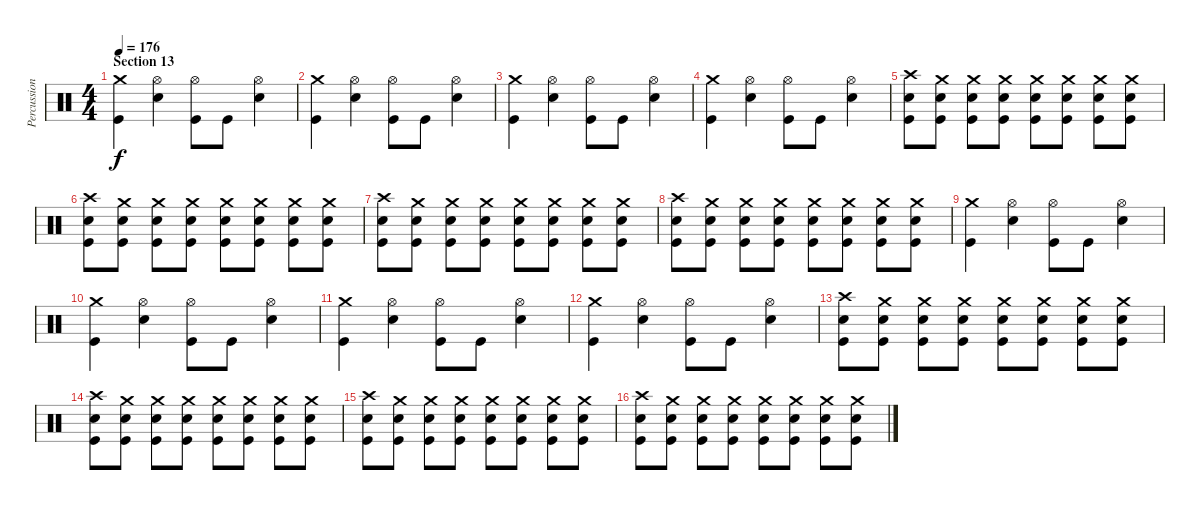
\track ("Percussions" "Percussion") {instrument percussion}
\staff {score}
\articulation defaults
\ts (4 4)
\section ("" "Section 13")
\tempo 176
\clef neutral
\ks c
("Crash medium (hit)" "Kick (hit)").4{dy f} ("Hi-Hat (open)" "Electric Snare (hit)").4 ("Hi-Hat (open)" "Kick (hit)").8 "Kick (hit)".8 ("Hi-Hat (open)" "Electric Snare (hit)").4 |
("Crash medium (hit)" "Kick (hit)").4 ("Hi-Hat (open)" "Electric Snare (hit)").4 ("Hi-Hat (open)" "Kick (hit)").8 "Kick (hit)".8 ("Hi-Hat (open)" "Electric Snare (hit)").4 |
("Crash medium (hit)" "Kick (hit)").4 ("Hi-Hat (open)" "Electric Snare (hit)").4 ("Hi-Hat (open)" "Kick (hit)").8 "Kick (hit)".8 ("Hi-Hat (open)" "Electric Snare (hit)").4 |
("Crash medium (hit)" "Kick (hit)").4 ("Hi-Hat (open)" "Electric Snare (hit)").4 ("Hi-Hat (open)" "Kick (hit)").8 "Kick (hit)".8 ("Hi-Hat (open)" "Electric Snare (hit)").4 |
("Crash high (hit)" "Electric Snare (hit)" "Kick (hit)").8 ("Crash medium (hit)" "Electric Snare (hit)" "Kick (hit)").8 ("Crash medium (hit)" "Electric Snare (hit)" "Kick (hit)").8 ("Crash medium (hit)" "Electric Snare (hit)" "Kick (hit)").8 ("Crash medium (hit)" "Electric Snare (hit)" "Kick (hit)").8 ("Crash medium (hit)" "Electric Snare (hit)" "Kick (hit)").8 ("Crash medium (hit)" "Electric Snare (hit)" "Kick (hit)").8 ("Crash medium (hit)" "Electric Snare (hit)" "Kick (hit)").8 |
("Crash high (hit)" "Electric Snare (hit)" "Kick (hit)").8 ("Crash medium (hit)" "Electric Snare (hit)" "Kick (hit)").8 ("Crash medium (hit)" "Electric Snare (hit)" "Kick (hit)").8 ("Crash medium (hit)" "Electric Snare (hit)" "Kick (hit)").8 ("Crash medium (hit)" "Electric Snare (hit)" "Kick (hit)").8 ("Crash medium (hit)" "Electric Snare (hit)" "Kick (hit)").8 ("Crash medium (hit)" "Electric Snare (hit)" "Kick (hit)").8 ("Crash medium (hit)" "Electric Snare (hit)" "Kick (hit)").8 |
("Crash high (hit)" "Electric Snare (hit)" "Kick (hit)").8 ("Crash medium (hit)" "Electric Snare (hit)" "Kick (hit)").8 ("Crash medium (hit)" "Electric Snare (hit)" "Kick (hit)").8 ("Crash medium (hit)" "Electric Snare (hit)" "Kick (hit)").8 ("Crash medium (hit)" "Electric Snare (hit)" "Kick (hit)").8 ("Crash medium (hit)" "Electric Snare (hit)" "Kick (hit)").8 ("Crash medium (hit)" "Electric Snare (hit)" "Kick (hit)").8 ("Crash medium (hit)" "Electric Snare (hit)" "Kick (hit)").8 |
("Crash high (hit)" "Electric Snare (hit)" "Kick (hit)").8 ("Crash medium (hit)" "Electric Snare (hit)" "Kick (hit)").8 ("Crash medium (hit)" "Electric Snare (hit)" "Kick (hit)").8 ("Crash medium (hit)" "Electric Snare (hit)" "Kick (hit)").8 ("Crash medium (hit)" "Electric Snare (hit)" "Kick (hit)").8 ("Crash medium (hit)" "Electric Snare (hit)" "Kick (hit)").8 ("Crash medium (hit)" "Electric Snare (hit)" "Kick (hit)").8 ("Crash medium (hit)" "Electric Snare (hit)" "Kick (hit)").8 |
("Crash medium (hit)" "Kick (hit)").4 ("Hi-Hat (open)" "Electric Snare (hit)").4 ("Hi-Hat (open)" "Kick (hit)").8 "Kick (hit)".8 ("Hi-Hat (open)" "Electric Snare (hit)").4 |
("Crash medium (hit)" "Kick (hit)").4 ("Hi-Hat (open)" "Electric Snare (hit)").4 ("Hi-Hat (open)" "Kick (hit)").8 "Kick (hit)".8 ("Hi-Hat (open)" "Electric Snare (hit)").4 |
("Crash medium (hit)" "Kick (hit)").4 ("Hi-Hat (open)" "Electric Snare (hit)").4 ("Hi-Hat (open)" "Kick (hit)").8 "Kick (hit)".8 ("Hi-Hat (open)" "Electric Snare (hit)").4 |
("Crash medium (hit)" "Kick (hit)").4 ("Hi-Hat (open)" "Electric Snare (hit)").4 ("Hi-Hat (open)" "Kick (hit)").8 "Kick (hit)".8 ("Hi-Hat (open)" "Electric Snare (hit)").4 |
("Crash high (hit)" "Electric Snare (hit)" "Kick (hit)").8 ("Crash medium (hit)" "Electric Snare (hit)" "Kick (hit)").8 ("Crash medium (hit)" "Electric Snare (hit)" "Kick (hit)").8 ("Crash medium (hit)" "Electric Snare (hit)" "Kick (hit)").8 ("Crash medium (hit)" "Electric Snare (hit)" "Kick (hit)").8 ("Crash medium (hit)" "Electric Snare (hit)" "Kick (hit)").8 ("Crash medium (hit)" "Electric Snare (hit)" "Kick (hit)").8 ("Crash medium (hit)" "Electric Snare (hit)" "Kick (hit)").8 |
("Crash high (hit)" "Electric Snare (hit)" "Kick (hit)").8 ("Crash medium (hit)" "Electric Snare (hit)" "Kick (hit)").8 ("Crash medium (hit)" "Electric Snare (hit)" "Kick (hit)").8 ("Crash medium (hit)" "Electric Snare (hit)" "Kick (hit)").8 ("Crash medium (hit)" "Electric Snare (hit)" "Kick (hit)").8 ("Crash medium (hit)" "Electric Snare (hit)" "Kick (hit)").8 ("Crash medium (hit)" "Electric Snare (hit)" "Kick (hit)").8 ("Crash medium (hit)" "Electric Snare (hit)" "Kick (hit)").8 |
("Crash high (hit)" "Electric Snare (hit)" "Kick (hit)").8 ("Crash medium (hit)" "Electric Snare (hit)" "Kick (hit)").8 ("Crash medium (hit)" "Electric Snare (hit)" "Kick (hit)").8 ("Crash medium (hit)" "Electric Snare (hit)" "Kick (hit)").8 ("Crash medium (hit)" "Electric Snare (hit)" "Kick (hit)").8 ("Crash medium (hit)" "Electric Snare (hit)" "Kick (hit)").8 ("Crash medium (hit)" "Electric Snare (hit)" "Kick (hit)").8 ("Crash medium (hit)" "Electric Snare (hit)" "Kick (hit)").8 |
("Crash high (hit)" "Electric Snare (hit)" "Kick (hit)").8 ("Crash medium (hit)" "Electric Snare (hit)" "Kick (hit)").8 ("Crash medium (hit)" "Electric Snare (hit)" "Kick (hit)").8 ("Crash medium (hit)" "Electric Snare (hit)" "Kick (hit)").8 ("Crash medium (hit)" "Electric Snare (hit)" "Kick (hit)").8 ("Crash medium (hit)" "Electric Snare (hit)" "Kick (hit)").8 ("Crash medium (hit)" "Electric Snare (hit)" "Kick (hit)").8 ("Crash medium (hit)" "Electric Snare (hit)" "Kick (hit)").8
